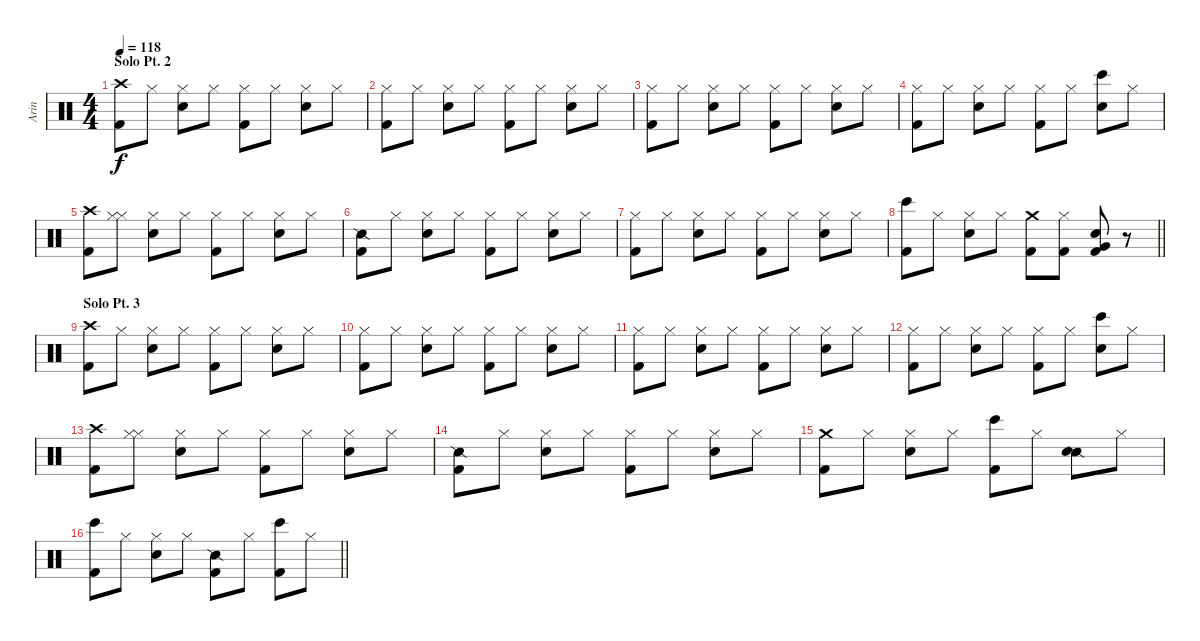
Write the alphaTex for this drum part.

\track ("Arin" "Arin") {instrument percussion}
\staff {score}
\articulation defaults
\ts (4 4)
\section ("" "Solo Pt. 2")
\tempo 118
\clef neutral
\ks c
("Crash high (hit)" "Kick (hit) 2").8{dy f} "Hi-Hat (closed)".8 ("Hi-Hat (closed)" "Electric Snare (hit)").8 "Hi-Hat (closed)".8 ("Hi-Hat (closed)" "Kick (hit) 2").8 "Hi-Hat (closed)".8 ("Hi-Hat (closed)" "Electric Snare (hit)").8 "Hi-Hat (closed)".8 |
("Hi-Hat (closed)" "Kick (hit) 2").8 "Hi-Hat (closed)".8 ("Hi-Hat (closed)" "Electric Snare (hit)").8 "Hi-Hat (closed)".8 ("Hi-Hat (closed)" "Kick (hit) 2").8 "Hi-Hat (closed)".8 ("Hi-Hat (closed)" "Electric Snare (hit)").8 "Hi-Hat (closed)".8 |
("Hi-Hat (closed)" "Kick (hit) 2").8 "Hi-Hat (closed)".8 ("Hi-Hat (closed)" "Electric Snare (hit)").8 "Hi-Hat (closed)".8 ("Hi-Hat (closed)" "Kick (hit) 2").8 "Hi-Hat (closed)".8 ("Hi-Hat (closed)" "Electric Snare (hit)").8 "Hi-Hat (closed)".8 |
("Hi-Hat (closed)" "Kick (hit) 2").8 "Hi-Hat (closed)".8 ("Hi-Hat (closed)" "Electric Snare (hit)").8 "Hi-Hat (closed)".8 ("Hi-Hat (closed)" "Kick (hit) 2").8 "Hi-Hat (closed)".8 ("Bongo High (hit)" "Electric Snare (hit)").8 "Hi-Hat (closed)".8 |
("Crash high (hit)" "Kick (hit) 2").8 ("Hi-Hat (closed)" "Hi-Hat (closed)").8 ("Hi-Hat (closed)" "Electric Snare (hit)").8 "Hi-Hat (closed)".8 ("Hi-Hat (closed)" "Kick (hit) 2").8 "Hi-Hat (closed)".8 ("Hi-Hat (closed)" "Electric Snare (hit)").8 "Hi-Hat (closed)".8 |
("Snare (side stick) 2" "Kick (hit) 2").8 "Hi-Hat (closed)".8 ("Hi-Hat (closed)" "Electric Snare (hit)").8 "Hi-Hat (closed)".8 ("Hi-Hat (closed)" "Kick (hit) 2").8 "Hi-Hat (closed)".8 ("Hi-Hat (closed)" "Electric Snare (hit)").8 "Hi-Hat (closed)".8 |
("Hi-Hat (closed)" "Kick (hit) 2").8 "Hi-Hat (closed)".8 ("Hi-Hat (closed)" "Electric Snare (hit)").8 "Hi-Hat (closed)".8 ("Hi-Hat (closed)" "Kick (hit) 2").8 "Hi-Hat (closed)".8 ("Hi-Hat (closed)" "Electric Snare (hit)").8 "Hi-Hat (closed)".8 |
\barLineRight lightlight
("Bongo High (hit)" "Kick (hit) 2").8 "Hi-Hat (closed)".8 ("Hi-Hat (closed)" "Electric Snare (hit)").8 "Hi-Hat (closed)".8 ("Crash medium (hit)" "Kick (hit) 2").8 ("Hi-Hat (closed)" "Kick (hit) 2").8 ("Very Low Tom (hit)" "Electric Snare (hit)" "Kick (hit) 2").8 r.8 |
\section ("" "Solo Pt. 3")
("Crash high (hit)" "Kick (hit) 2").8 "Hi-Hat (closed)".8 ("Hi-Hat (closed)" "Electric Snare (hit)").8 "Hi-Hat (closed)".8 ("Hi-Hat (closed)" "Kick (hit) 2").8 "Hi-Hat (closed)".8 ("Hi-Hat (closed)" "Electric Snare (hit)").8 "Hi-Hat (closed)".8 |
("Hi-Hat (closed)" "Kick (hit) 2").8 "Hi-Hat (closed)".8 ("Hi-Hat (closed)" "Electric Snare (hit)").8 "Hi-Hat (closed)".8 ("Hi-Hat (closed)" "Kick (hit) 2").8 "Hi-Hat (closed)".8 ("Hi-Hat (closed)" "Electric Snare (hit)").8 "Hi-Hat (closed)".8 |
("Hi-Hat (closed)" "Kick (hit) 2").8 "Hi-Hat (closed)".8 ("Hi-Hat (closed)" "Electric Snare (hit)").8 "Hi-Hat (closed)".8 ("Hi-Hat (closed)" "Kick (hit) 2").8 "Hi-Hat (closed)".8 ("Hi-Hat (closed)" "Electric Snare (hit)").8 "Hi-Hat (closed)".8 |
("Hi-Hat (closed)" "Kick (hit) 2").8 "Hi-Hat (closed)".8 ("Hi-Hat (closed)" "Electric Snare (hit)").8 "Hi-Hat (closed)".8 ("Hi-Hat (closed)" "Kick (hit) 2").8 "Hi-Hat (closed)".8 ("Bongo High (hit)" "Electric Snare (hit)").8 "Hi-Hat (closed)".8 |
("Crash high (hit)" "Kick (hit) 2").8 ("Hi-Hat (closed)" "Hi-Hat (closed)").8 ("Hi-Hat (closed)" "Electric Snare (hit)").8 "Hi-Hat (closed)".8 ("Hi-Hat (closed)" "Kick (hit) 2").8 "Hi-Hat (closed)".8 ("Hi-Hat (closed)" "Electric Snare (hit)").8 "Hi-Hat (closed)".8 |
("Snare (side stick) 2" "Kick (hit) 2").8 "Hi-Hat (closed)".8 ("Hi-Hat (closed)" "Electric Snare (hit)").8 "Hi-Hat (closed)".8 ("Hi-Hat (closed)" "Kick (hit) 2").8 "Hi-Hat (closed)".8 ("Hi-Hat (closed)" "Electric Snare (hit)").8 "Hi-Hat (closed)".8 |
("Crash medium (hit)" "Kick (hit) 2").8 "Hi-Hat (closed)".8 ("Hi-Hat (closed)" "Electric Snare (hit)").8 "Hi-Hat (closed)".8 ("Bongo High (hit)" "Kick (hit) 2").8 "Hi-Hat (closed)".8 ("Snare (side stick) 2" "Electric Snare (hit)").8 "Hi-Hat (closed)".8 |
\barLineRight lightlight
("Bongo High (hit)" "Kick (hit) 2").8 "Hi-Hat (closed)".8 ("Hi-Hat (closed)" "Electric Snare (hit)").8 "Hi-Hat (closed)".8 ("Snare (side stick) 2" "Kick (hit) 2").8 "Hi-Hat (closed)".8 ("Bongo High (hit)" "Kick (hit) 2").8 "Hi-Hat (closed)".8
